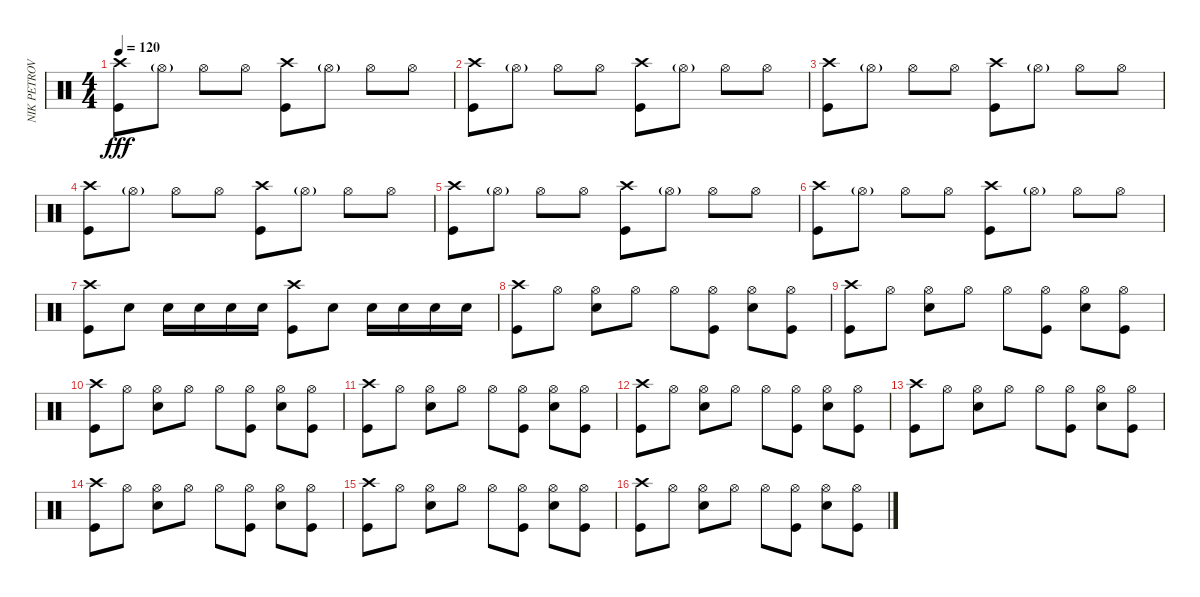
\track ("NIK PETROV" "NIK PETROV") {instrument percussion}
\staff {score}
\articulation defaults
\ts (4 4)
\tempo 120
\clef neutral
\ks c
("Crash high (hit)" "Kick (hit)").8{dy fff} "Hi-Hat (open)"{g}.8 "Hi-Hat (open)".8 "Hi-Hat (open)".8 ("Crash high (hit)" "Kick (hit)").8 "Hi-Hat (open)"{g}.8 "Hi-Hat (open)".8 "Hi-Hat (open)".8 |
("Crash high (hit)" "Kick (hit)").8 "Hi-Hat (open)"{g}.8 "Hi-Hat (open)".8 "Hi-Hat (open)".8 ("Crash high (hit)" "Kick (hit)").8 "Hi-Hat (open)"{g}.8 "Hi-Hat (open)".8 "Hi-Hat (open)".8 |
("Crash high (hit)" "Kick (hit)").8 "Hi-Hat (open)"{g}.8 "Hi-Hat (open)".8 "Hi-Hat (open)".8 ("Crash high (hit)" "Kick (hit)").8 "Hi-Hat (open)"{g}.8 "Hi-Hat (open)".8 "Hi-Hat (open)".8 |
("Crash high (hit)" "Kick (hit)").8 "Hi-Hat (open)"{g}.8 "Hi-Hat (open)".8 "Hi-Hat (open)".8 ("Crash high (hit)" "Kick (hit)").8 "Hi-Hat (open)"{g}.8 "Hi-Hat (open)".8 "Hi-Hat (open)".8 |
("Crash high (hit)" "Kick (hit)").8 "Hi-Hat (open)"{g}.8 "Hi-Hat (open)".8 "Hi-Hat (open)".8 ("Crash high (hit)" "Kick (hit)").8 "Hi-Hat (open)"{g}.8 "Hi-Hat (open)".8 "Hi-Hat (open)".8 |
("Crash high (hit)" "Kick (hit)").8 "Hi-Hat (open)"{g}.8 "Hi-Hat (open)".8 "Hi-Hat (open)".8 ("Crash high (hit)" "Kick (hit)").8 "Hi-Hat (open)"{g}.8 "Hi-Hat (open)".8 "Hi-Hat (open)".8 |
("Crash high (hit)" "Kick (hit)").8 "Snare (hit) 2".8 "Snare (hit) 2".16 "Snare (hit) 2".16 "Snare (hit) 2".16 "Snare (hit) 2".16 ("Crash high (hit)" "Kick (hit)").8 "Snare (hit) 2".8 "Snare (hit) 2".16 "Snare (hit) 2".16 "Snare (hit) 2".16 "Snare (hit) 2".16 |
("Crash high (hit)" "Kick (hit)").8 "Hi-Hat (open)".8 ("Hi-Hat (open)" "Snare (hit) 2").8 "Hi-Hat (open)".8 "Hi-Hat (open)".8 ("Hi-Hat (open)" "Kick (hit)").8 ("Hi-Hat (open)" "Snare (hit) 2").8 ("Hi-Hat (open)" "Kick (hit)").8 |
("Crash high (hit)" "Kick (hit)").8 "Hi-Hat (open)".8 ("Hi-Hat (open)" "Snare (hit) 2").8 "Hi-Hat (open)".8 "Hi-Hat (open)".8 ("Hi-Hat (open)" "Kick (hit)").8 ("Hi-Hat (open)" "Snare (hit) 2").8 ("Hi-Hat (open)" "Kick (hit)").8 |
("Crash high (hit)" "Kick (hit)").8 "Hi-Hat (open)".8 ("Hi-Hat (open)" "Snare (hit) 2").8 "Hi-Hat (open)".8 "Hi-Hat (open)".8 ("Hi-Hat (open)" "Kick (hit)").8 ("Hi-Hat (open)" "Snare (hit) 2").8 ("Hi-Hat (open)" "Kick (hit)").8 |
("Crash high (hit)" "Kick (hit)").8 "Hi-Hat (open)".8 ("Hi-Hat (open)" "Snare (hit) 2").8 "Hi-Hat (open)".8 "Hi-Hat (open)".8 ("Hi-Hat (open)" "Kick (hit)").8 ("Hi-Hat (open)" "Snare (hit) 2").8 ("Hi-Hat (open)" "Kick (hit)").8 |
("Crash high (hit)" "Kick (hit)").8 "Hi-Hat (open)".8 ("Hi-Hat (open)" "Snare (hit) 2").8 "Hi-Hat (open)".8 "Hi-Hat (open)".8 ("Hi-Hat (open)" "Kick (hit)").8 ("Hi-Hat (open)" "Snare (hit) 2").8 ("Hi-Hat (open)" "Kick (hit)").8 |
("Crash high (hit)" "Kick (hit)").8 "Hi-Hat (open)".8 ("Hi-Hat (open)" "Snare (hit) 2").8 "Hi-Hat (open)".8 "Hi-Hat (open)".8 ("Hi-Hat (open)" "Kick (hit)").8 ("Hi-Hat (open)" "Snare (hit) 2").8 ("Hi-Hat (open)" "Kick (hit)").8 |
("Crash high (hit)" "Kick (hit)").8 "Hi-Hat (open)".8 ("Hi-Hat (open)" "Snare (hit) 2").8 "Hi-Hat (open)".8 "Hi-Hat (open)".8 ("Hi-Hat (open)" "Kick (hit)").8 ("Hi-Hat (open)" "Snare (hit) 2").8 ("Hi-Hat (open)" "Kick (hit)").8 |
("Crash high (hit)" "Kick (hit)").8 "Hi-Hat (open)".8 ("Hi-Hat (open)" "Snare (hit) 2").8 "Hi-Hat (open)".8 "Hi-Hat (open)".8 ("Hi-Hat (open)" "Kick (hit)").8 ("Hi-Hat (open)" "Snare (hit) 2").8 ("Hi-Hat (open)" "Kick (hit)").8 |
("Crash high (hit)" "Kick (hit)").8 "Hi-Hat (open)".8 ("Hi-Hat (open)" "Snare (hit) 2").8 "Hi-Hat (open)".8 "Hi-Hat (open)".8 ("Hi-Hat (open)" "Kick (hit)").8 ("Hi-Hat (open)" "Snare (hit) 2").8 ("Hi-Hat (open)" "Kick (hit)").8
